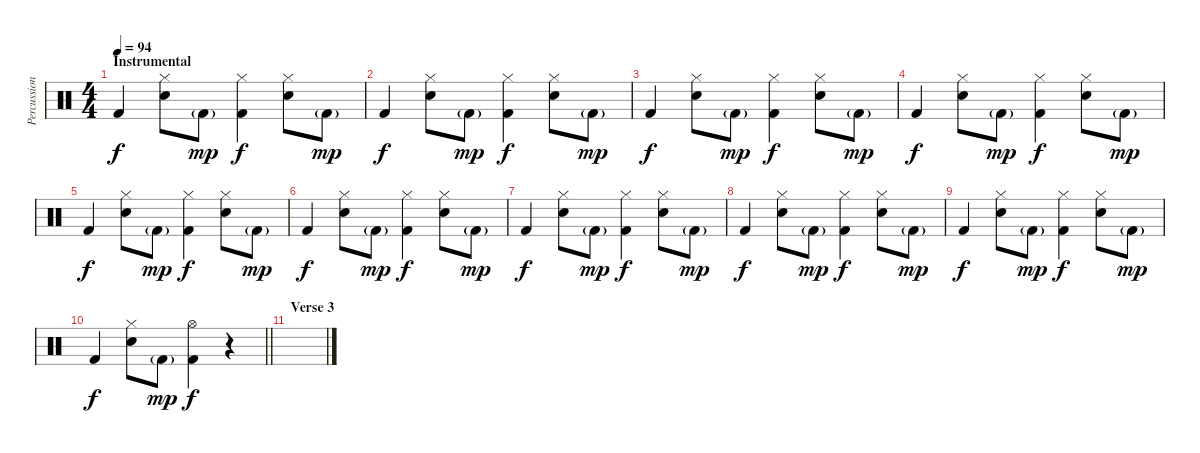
\track ("Percussion" "Percussion") {instrument percussion}
\staff {score}
\articulation defaults
\ts (4 4)
\section ("" "Instrumental")
\tempo 94
\clef neutral
\ks c "Kick (hit) 2".4{dy f}
("Hi-Hat (closed)" "Snare (hit) 2").8 "Kick (hit) 2"{g}.8{dy mp} ("Hi-Hat (closed)" "Kick (hit) 2").4{dy f} ("Hi-Hat (closed)" "Snare (hit) 2").8 "Kick (hit) 2"{g}.8{dy mp} |
"Kick (hit) 2".4{dy f} ("Hi-Hat (closed)" "Snare (hit) 2").8 "Kick (hit) 2"{g}.8{dy mp} ("Hi-Hat (closed)" "Kick (hit) 2").4{dy f} ("Hi-Hat (closed)" "Snare (hit) 2").8 "Kick (hit) 2"{g}.8{dy mp} |
"Kick (hit) 2".4{dy f} ("Hi-Hat (closed)" "Snare (hit) 2").8 "Kick (hit) 2"{g}.8{dy mp} ("Hi-Hat (closed)" "Kick (hit) 2").4{dy f} ("Hi-Hat (closed)" "Snare (hit) 2").8 "Kick (hit) 2"{g}.8{dy mp} |
"Kick (hit) 2".4{dy f} ("Hi-Hat (closed)" "Snare (hit) 2").8 "Kick (hit) 2"{g}.8{dy mp} ("Hi-Hat (closed)" "Kick (hit) 2").4{dy f} ("Hi-Hat (closed)" "Snare (hit) 2").8 "Kick (hit) 2"{g}.8{dy mp} |
"Kick (hit) 2".4{dy f} ("Hi-Hat (closed)" "Snare (hit) 2").8 "Kick (hit) 2"{g}.8{dy mp} ("Hi-Hat (closed)" "Kick (hit) 2").4{dy f} ("Hi-Hat (closed)" "Snare (hit) 2").8 "Kick (hit) 2"{g}.8{dy mp} |
"Kick (hit) 2".4{dy f} ("Hi-Hat (closed)" "Snare (hit) 2").8 "Kick (hit) 2"{g}.8{dy mp} ("Hi-Hat (closed)" "Kick (hit) 2").4{dy f} ("Hi-Hat (closed)" "Snare (hit) 2").8 "Kick (hit) 2"{g}.8{dy mp} |
"Kick (hit) 2".4{dy f} ("Hi-Hat (closed)" "Snare (hit) 2").8 "Kick (hit) 2"{g}.8{dy mp} ("Hi-Hat (closed)" "Kick (hit) 2").4{dy f} ("Hi-Hat (closed)" "Snare (hit) 2").8 "Kick (hit) 2"{g}.8{dy mp} |
"Kick (hit) 2".4{dy f} ("Hi-Hat (closed)" "Snare (hit) 2").8 "Kick (hit) 2"{g}.8{dy mp} ("Hi-Hat (closed)" "Kick (hit) 2").4{dy f} ("Hi-Hat (closed)" "Snare (hit) 2").8 "Kick (hit) 2"{g}.8{dy mp} |
"Kick (hit) 2".4{dy f} ("Hi-Hat (closed)" "Snare (hit) 2").8 "Kick (hit) 2"{g}.8{dy mp} ("Hi-Hat (closed)" "Kick (hit) 2").4{dy f} ("Hi-Hat (closed)" "Snare (hit) 2").8 "Kick (hit) 2"{g}.8{dy mp} |
\barLineRight lightlight "Kick (hit) 2".4{dy f}
("Hi-Hat (closed)" "Snare (hit) 2").8 "Kick (hit) 2"{g}.8{dy mp} ("Hi-Hat (open)" "Kick (hit) 2").4{dy f} r.4 |
\section ("" "Verse 3")
